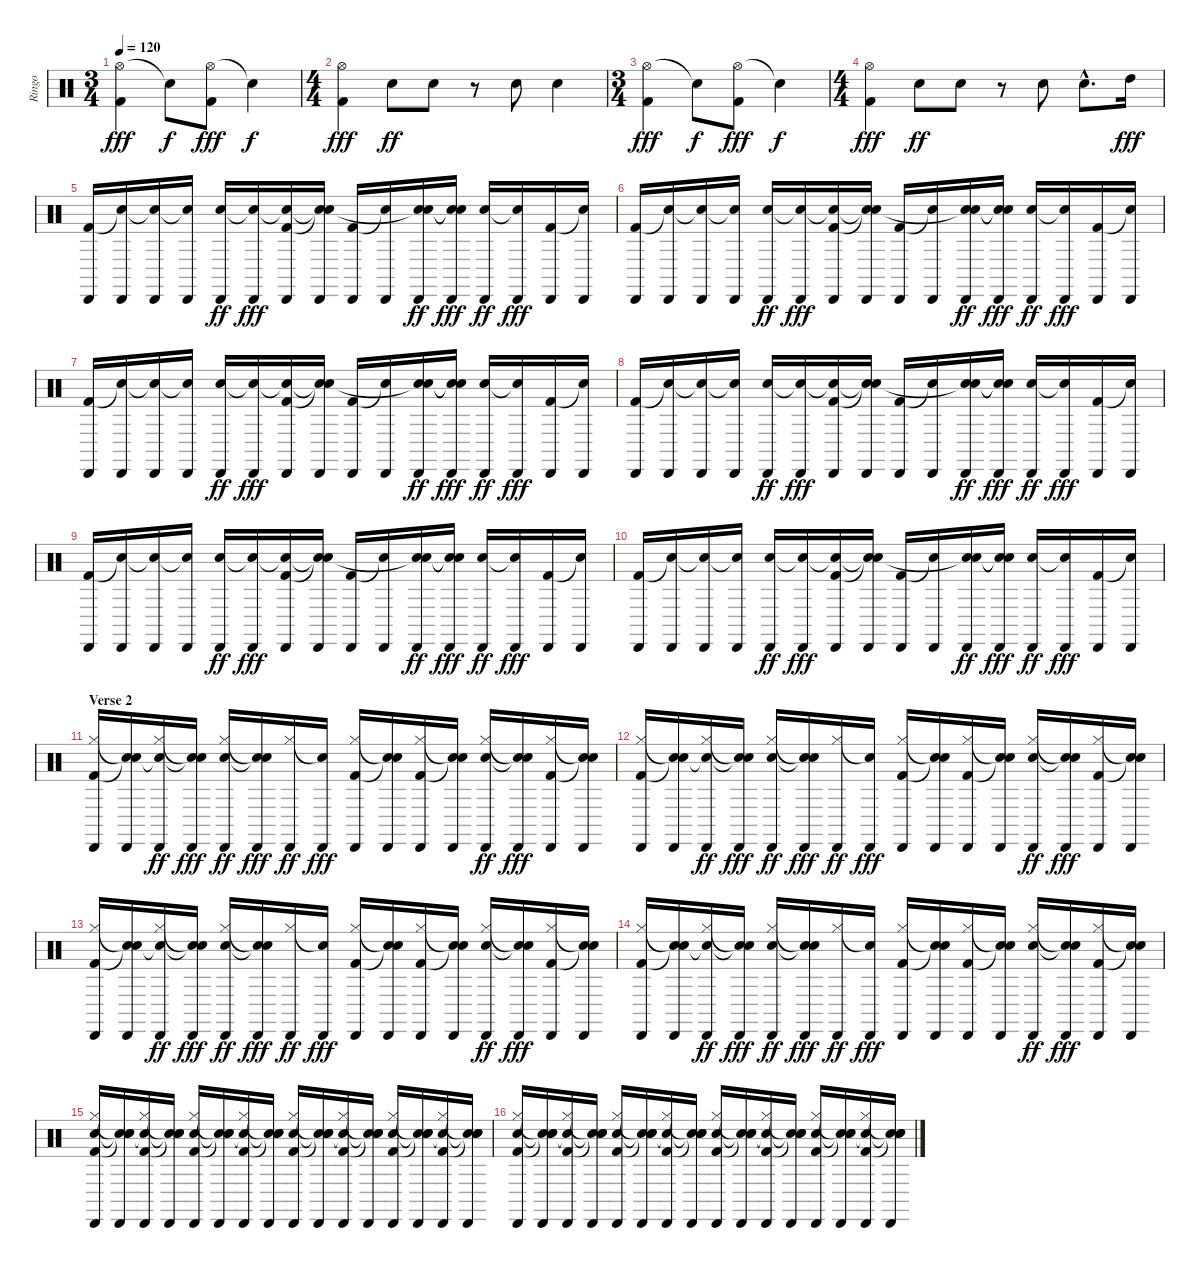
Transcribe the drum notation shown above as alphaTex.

\track ("Ringo" "Ringo") {instrument percussion}
\staff {score}
\articulation defaults
\ts (3 4)
\tempo 120
\clef neutral
\ks c
("Hi-Hat (open)" "Kick (hit) 2").4{dy fff} "Snare (hit)"{t}.8{dy f} ("Hi-Hat (open)" "Kick (hit) 2").8{dy fff} "Snare (hit)"{t}.4{dy f} |
\ts (4 4)
("Hi-Hat (open)" "Kick (hit) 2").4{dy fff} "Electric Snare (hit)".8{dy ff} "Electric Snare (hit)".8 r.8 "Electric Snare (hit)".8 "Electric Snare (hit)".4 |
\ts (3 4)
("Hi-Hat (open)" "Kick (hit) 2").4{dy fff} "Snare (hit)"{t}.8{dy f} ("Hi-Hat (open)" "Kick (hit) 2").8{dy fff} "Snare (hit)"{t}.4{dy f} |
\ts (4 4)
("Hi-Hat (open)" "Kick (hit) 2").4{dy fff} "Electric Snare (hit)".8{dy ff} "Electric Snare (hit)".8 r.8 "Electric Snare (hit)".8 "Electric Snare (hit)"{hac}.8{d} "High Tom (hit)".16{dy fff} |
("Cabasa (hit)" "Kick (hit) 2").16 ("Cabasa (hit)" "Snare (hit)"{t}).16 ("Cabasa (hit)" "Snare (hit)"{t}).16 ("Cabasa (hit)" "Snare (hit)"{t}).16 ("Cabasa (hit)" "Electric Snare (hit)").16{dy ff} ("Cabasa (hit)" "Snare (hit)"{t}).16{dy fff} ("Cabasa (hit)" "Snare (hit)"{t} "Kick (hit) 2").16 ("Cabasa (hit)" "Snare (hit)"{t} "Snare (hit)"{t}).16 ("Cabasa (hit)" "Kick (hit) 2").16 ("Cabasa (hit)" "Snare (hit)"{t}).16 ("Cabasa (hit)" "Electric Snare (hit)" "Snare (hit)"{t}).16{dy ff} ("Cabasa (hit)" "Snare (hit)"{t} "Snare (hit)"{t}).16{dy fff} ("Cabasa (hit)" "Electric Snare (hit)").16{dy ff} ("Cabasa (hit)" "Snare (hit)"{t}).16{dy fff} ("Cabasa (hit)" "Kick (hit) 2").16 ("Cabasa (hit)" "Snare (hit)"{t}).16 |
("Cabasa (hit)" "Kick (hit) 2").16 ("Cabasa (hit)" "Snare (hit)"{t}).16 ("Cabasa (hit)" "Snare (hit)"{t}).16 ("Cabasa (hit)" "Snare (hit)"{t}).16 ("Cabasa (hit)" "Electric Snare (hit)").16{dy ff} ("Cabasa (hit)" "Snare (hit)"{t}).16{dy fff} ("Cabasa (hit)" "Snare (hit)"{t} "Kick (hit) 2").16 ("Cabasa (hit)" "Snare (hit)"{t} "Snare (hit)"{t}).16 ("Cabasa (hit)" "Kick (hit) 2").16 ("Cabasa (hit)" "Snare (hit)"{t}).16 ("Cabasa (hit)" "Electric Snare (hit)" "Snare (hit)"{t}).16{dy ff} ("Cabasa (hit)" "Snare (hit)"{t} "Snare (hit)"{t}).16{dy fff} ("Cabasa (hit)" "Electric Snare (hit)").16{dy ff} ("Cabasa (hit)" "Snare (hit)"{t}).16{dy fff} ("Cabasa (hit)" "Kick (hit) 2").16 ("Cabasa (hit)" "Snare (hit)"{t}).16 |
("Cabasa (hit)" "Kick (hit) 2").16 ("Cabasa (hit)" "Snare (hit)"{t}).16 ("Cabasa (hit)" "Snare (hit)"{t}).16 ("Cabasa (hit)" "Snare (hit)"{t}).16 ("Cabasa (hit)" "Electric Snare (hit)").16{dy ff} ("Cabasa (hit)" "Snare (hit)"{t}).16{dy fff} ("Cabasa (hit)" "Snare (hit)"{t} "Kick (hit) 2").16 ("Cabasa (hit)" "Snare (hit)"{t} "Snare (hit)"{t}).16 ("Cabasa (hit)" "Kick (hit) 2").16 ("Cabasa (hit)" "Snare (hit)"{t}).16 ("Cabasa (hit)" "Electric Snare (hit)" "Snare (hit)"{t}).16{dy ff} ("Cabasa (hit)" "Snare (hit)"{t} "Snare (hit)"{t}).16{dy fff} ("Cabasa (hit)" "Electric Snare (hit)").16{dy ff} ("Cabasa (hit)" "Snare (hit)"{t}).16{dy fff} ("Cabasa (hit)" "Kick (hit) 2").16 ("Cabasa (hit)" "Snare (hit)"{t}).16 |
("Cabasa (hit)" "Kick (hit) 2").16 ("Cabasa (hit)" "Snare (hit)"{t}).16 ("Cabasa (hit)" "Snare (hit)"{t}).16 ("Cabasa (hit)" "Snare (hit)"{t}).16 ("Cabasa (hit)" "Electric Snare (hit)").16{dy ff} ("Cabasa (hit)" "Snare (hit)"{t}).16{dy fff} ("Cabasa (hit)" "Snare (hit)"{t} "Kick (hit) 2").16 ("Cabasa (hit)" "Snare (hit)"{t} "Snare (hit)"{t}).16 ("Cabasa (hit)" "Kick (hit) 2").16 ("Cabasa (hit)" "Snare (hit)"{t}).16 ("Cabasa (hit)" "Electric Snare (hit)" "Snare (hit)"{t}).16{dy ff} ("Cabasa (hit)" "Snare (hit)"{t} "Snare (hit)"{t}).16{dy fff} ("Cabasa (hit)" "Electric Snare (hit)").16{dy ff} ("Cabasa (hit)" "Snare (hit)"{t}).16{dy fff} ("Cabasa (hit)" "Kick (hit) 2").16 ("Cabasa (hit)" "Snare (hit)"{t}).16 |
("Cabasa (hit)" "Kick (hit) 2").16 ("Cabasa (hit)" "Snare (hit)"{t}).16 ("Cabasa (hit)" "Snare (hit)"{t}).16 ("Cabasa (hit)" "Snare (hit)"{t}).16 ("Cabasa (hit)" "Electric Snare (hit)").16{dy ff} ("Cabasa (hit)" "Snare (hit)"{t}).16{dy fff} ("Cabasa (hit)" "Snare (hit)"{t} "Kick (hit) 2").16 ("Cabasa (hit)" "Snare (hit)"{t} "Snare (hit)"{t}).16 ("Cabasa (hit)" "Kick (hit) 2").16 ("Cabasa (hit)" "Snare (hit)"{t}).16 ("Cabasa (hit)" "Electric Snare (hit)" "Snare (hit)"{t}).16{dy ff} ("Cabasa (hit)" "Snare (hit)"{t} "Snare (hit)"{t}).16{dy fff} ("Cabasa (hit)" "Electric Snare (hit)").16{dy ff} ("Cabasa (hit)" "Snare (hit)"{t}).16{dy fff} ("Cabasa (hit)" "Kick (hit) 2").16 ("Cabasa (hit)" "Snare (hit)"{t}).16 |
("Cabasa (hit)" "Kick (hit) 2").16 ("Cabasa (hit)" "Snare (hit)"{t}).16 ("Cabasa (hit)" "Snare (hit)"{t}).16 ("Cabasa (hit)" "Snare (hit)"{t}).16 ("Cabasa (hit)" "Electric Snare (hit)").16{dy ff} ("Cabasa (hit)" "Snare (hit)"{t}).16{dy fff} ("Cabasa (hit)" "Snare (hit)"{t} "Kick (hit) 2").16 ("Cabasa (hit)" "Snare (hit)"{t} "Snare (hit)"{t}).16 ("Cabasa (hit)" "Kick (hit) 2").16 ("Cabasa (hit)" "Snare (hit)"{t}).16 ("Cabasa (hit)" "Electric Snare (hit)" "Snare (hit)"{t}).16{dy ff} ("Cabasa (hit)" "Snare (hit)"{t} "Snare (hit)"{t}).16{dy fff} ("Cabasa (hit)" "Electric Snare (hit)").16{dy ff} ("Cabasa (hit)" "Snare (hit)"{t}).16{dy fff} ("Cabasa (hit)" "Kick (hit) 2").16 ("Cabasa (hit)" "Snare (hit)"{t}).16 |
\section ("" "Verse 2")
("Cabasa (hit)" "Hi-Hat (closed)" "Kick (hit) 2").16 ("Cabasa (hit)" "Snare (hit)"{t} "Snare (hit)"{t}).16 ("Cabasa (hit)" "Hi-Hat (closed)" "Snare (hit)"{t}).16{dy ff} ("Cabasa (hit)" "Snare (hit)"{t} "Snare (hit)"{t}).16{dy fff} ("Cabasa (hit)" "Hi-Hat (closed)" "Electric Snare (hit)").16{dy ff} ("Cabasa (hit)" "Snare (hit)"{t} "Snare (hit)"{t}).16{dy fff} ("Cabasa (hit)" "Hi-Hat (closed)").16{dy ff} ("Cabasa (hit)" "Snare (hit)"{t}).16{dy fff} ("Cabasa (hit)" "Hi-Hat (closed)" "Kick (hit) 2").16 ("Cabasa (hit)" "Snare (hit)"{t} "Snare (hit)"{t}).16 ("Cabasa (hit)" "Hi-Hat (closed)" "Kick (hit) 2").16 ("Cabasa (hit)" "Snare (hit)"{t} "Snare (hit)"{t}).16 ("Cabasa (hit)" "Hi-Hat (closed)" "Electric Snare (hit)").16{dy ff} ("Cabasa (hit)" "Snare (hit)"{t} "Snare (hit)"{t}).16{dy fff} ("Cabasa (hit)" "Hi-Hat (closed)" "Kick (hit) 2").16 ("Cabasa (hit)" "Snare (hit)"{t} "Snare (hit)"{t}).16 |
("Cabasa (hit)" "Hi-Hat (closed)" "Kick (hit) 2").16 ("Cabasa (hit)" "Snare (hit)"{t} "Snare (hit)"{t}).16 ("Cabasa (hit)" "Hi-Hat (closed)" "Snare (hit)"{t}).16{dy ff} ("Cabasa (hit)" "Snare (hit)"{t} "Snare (hit)"{t}).16{dy fff} ("Cabasa (hit)" "Hi-Hat (closed)" "Electric Snare (hit)").16{dy ff} ("Cabasa (hit)" "Snare (hit)"{t} "Snare (hit)"{t}).16{dy fff} ("Cabasa (hit)" "Hi-Hat (closed)").16{dy ff} ("Cabasa (hit)" "Snare (hit)"{t}).16{dy fff} ("Cabasa (hit)" "Hi-Hat (closed)" "Kick (hit) 2").16 ("Cabasa (hit)" "Snare (hit)"{t} "Snare (hit)"{t}).16 ("Cabasa (hit)" "Hi-Hat (closed)" "Kick (hit) 2").16 ("Cabasa (hit)" "Snare (hit)"{t} "Snare (hit)"{t}).16 ("Cabasa (hit)" "Hi-Hat (closed)" "Electric Snare (hit)").16{dy ff} ("Cabasa (hit)" "Snare (hit)"{t} "Snare (hit)"{t}).16{dy fff} ("Cabasa (hit)" "Hi-Hat (closed)" "Kick (hit) 2").16 ("Cabasa (hit)" "Snare (hit)"{t} "Snare (hit)"{t}).16 |
("Cabasa (hit)" "Hi-Hat (closed)" "Kick (hit) 2").16 ("Cabasa (hit)" "Snare (hit)"{t} "Snare (hit)"{t}).16 ("Cabasa (hit)" "Hi-Hat (closed)" "Snare (hit)"{t}).16{dy ff} ("Cabasa (hit)" "Snare (hit)"{t} "Snare (hit)"{t}).16{dy fff} ("Cabasa (hit)" "Hi-Hat (closed)" "Electric Snare (hit)").16{dy ff} ("Cabasa (hit)" "Snare (hit)"{t} "Snare (hit)"{t}).16{dy fff} ("Cabasa (hit)" "Hi-Hat (closed)").16{dy ff} ("Cabasa (hit)" "Snare (hit)"{t}).16{dy fff} ("Cabasa (hit)" "Hi-Hat (closed)" "Kick (hit) 2").16 ("Cabasa (hit)" "Snare (hit)"{t} "Snare (hit)"{t}).16 ("Cabasa (hit)" "Hi-Hat (closed)" "Kick (hit) 2").16 ("Cabasa (hit)" "Snare (hit)"{t} "Snare (hit)"{t}).16 ("Cabasa (hit)" "Hi-Hat (closed)" "Electric Snare (hit)").16{dy ff} ("Cabasa (hit)" "Snare (hit)"{t} "Snare (hit)"{t}).16{dy fff} ("Cabasa (hit)" "Hi-Hat (closed)" "Kick (hit) 2").16 ("Cabasa (hit)" "Snare (hit)"{t} "Snare (hit)"{t}).16 |
("Cabasa (hit)" "Hi-Hat (closed)" "Kick (hit) 2").16 ("Cabasa (hit)" "Snare (hit)"{t} "Snare (hit)"{t}).16 ("Cabasa (hit)" "Hi-Hat (closed)" "Snare (hit)"{t}).16{dy ff} ("Cabasa (hit)" "Snare (hit)"{t} "Snare (hit)"{t}).16{dy fff} ("Cabasa (hit)" "Hi-Hat (closed)" "Electric Snare (hit)").16{dy ff} ("Cabasa (hit)" "Snare (hit)"{t} "Snare (hit)"{t}).16{dy fff} ("Cabasa (hit)" "Hi-Hat (closed)").16{dy ff} ("Cabasa (hit)" "Snare (hit)"{t}).16{dy fff} ("Cabasa (hit)" "Hi-Hat (closed)" "Kick (hit) 2").16 ("Cabasa (hit)" "Snare (hit)"{t} "Snare (hit)"{t}).16 ("Cabasa (hit)" "Hi-Hat (closed)" "Kick (hit) 2").16 ("Cabasa (hit)" "Snare (hit)"{t} "Snare (hit)"{t}).16 ("Cabasa (hit)" "Hi-Hat (closed)" "Electric Snare (hit)").16{dy ff} ("Cabasa (hit)" "Snare (hit)"{t} "Snare (hit)"{t}).16{dy fff} ("Cabasa (hit)" "Hi-Hat (closed)" "Kick (hit) 2").16 ("Cabasa (hit)" "Snare (hit)"{t} "Snare (hit)"{t}).16 |
("Cabasa (hit)" "Hi-Hat (closed)" "Electric Snare (hit)" "Kick (hit) 2").16 ("Cabasa (hit)" "Snare (hit)"{t} "Snare (hit)"{t} "Snare (hit)"{t}).16 ("Cabasa (hit)" "Hi-Hat (closed)" "Electric Snare (hit)"{t} "Kick (hit) 2").16 ("Cabasa (hit)" "Snare (hit)"{t} "Snare (hit)"{t} "Snare (hit)"{t}).16 ("Cabasa (hit)" "Hi-Hat (closed)" "Electric Snare (hit)" "Kick (hit) 2").16 ("Cabasa (hit)" "Snare (hit)"{t} "Snare (hit)"{t} "Snare (hit)"{t}).16 ("Cabasa (hit)" "Hi-Hat (closed)" "Snare (hit)"{t} "Kick (hit) 2").16 ("Cabasa (hit)" "Snare (hit)"{t} "Snare (hit)"{t} "Snare (hit)"{t}).16 ("Cabasa (hit)" "Hi-Hat (closed)" "Electric Snare (hit)" "Kick (hit) 2").16 ("Cabasa (hit)" "Snare (hit)"{t} "Snare (hit)"{t} "Snare (hit)"{t}).16 ("Cabasa (hit)" "Hi-Hat (closed)" "Snare (hit)"{t} "Kick (hit) 2").16 ("Cabasa (hit)" "Snare (hit)"{t} "Snare (hit)"{t} "Snare (hit)"{t}).16 ("Cabasa (hit)" "Hi-Hat (closed)" "Electric Snare (hit)" "Kick (hit) 2").16 ("Cabasa (hit)" "Snare (hit)"{t} "Snare (hit)"{t} "Snare (hit)"{t}).16 ("Cabasa (hit)" "Hi-Hat (closed)" "Snare (hit)"{t} "Kick (hit) 2").16 ("Cabasa (hit)" "Snare (hit)"{t} "Snare (hit)"{t} "Snare (hit)"{t}).16 |
("Cabasa (hit)" "Hi-Hat (closed)" "Electric Snare (hit)" "Kick (hit) 2").16 ("Cabasa (hit)" "Snare (hit)"{t} "Snare (hit)"{t} "Snare (hit)"{t}).16 ("Cabasa (hit)" "Hi-Hat (closed)" "Electric Snare (hit)"{t} "Kick (hit) 2").16 ("Cabasa (hit)" "Snare (hit)"{t} "Snare (hit)"{t} "Snare (hit)"{t}).16 ("Cabasa (hit)" "Hi-Hat (closed)" "Electric Snare (hit)" "Kick (hit) 2").16 ("Cabasa (hit)" "Snare (hit)"{t} "Snare (hit)"{t} "Snare (hit)"{t}).16 ("Cabasa (hit)" "Hi-Hat (closed)" "Snare (hit)"{t} "Kick (hit) 2").16 ("Cabasa (hit)" "Snare (hit)"{t} "Snare (hit)"{t} "Snare (hit)"{t}).16 ("Cabasa (hit)" "Hi-Hat (closed)" "Electric Snare (hit)" "Kick (hit) 2").16 ("Cabasa (hit)" "Snare (hit)"{t} "Snare (hit)"{t} "Snare (hit)"{t}).16 ("Cabasa (hit)" "Hi-Hat (closed)" "Snare (hit)"{t} "Kick (hit) 2").16 ("Cabasa (hit)" "Snare (hit)"{t} "Snare (hit)"{t} "Snare (hit)"{t}).16 ("Cabasa (hit)" "Hi-Hat (closed)" "Electric Snare (hit)" "Kick (hit) 2").16 ("Cabasa (hit)" "Snare (hit)"{t} "Snare (hit)"{t} "Snare (hit)"{t}).16 ("Cabasa (hit)" "Hi-Hat (closed)" "Snare (hit)"{t} "Kick (hit) 2").16 ("Cabasa (hit)" "Snare (hit)"{t} "Snare (hit)"{t} "Snare (hit)"{t}).16
